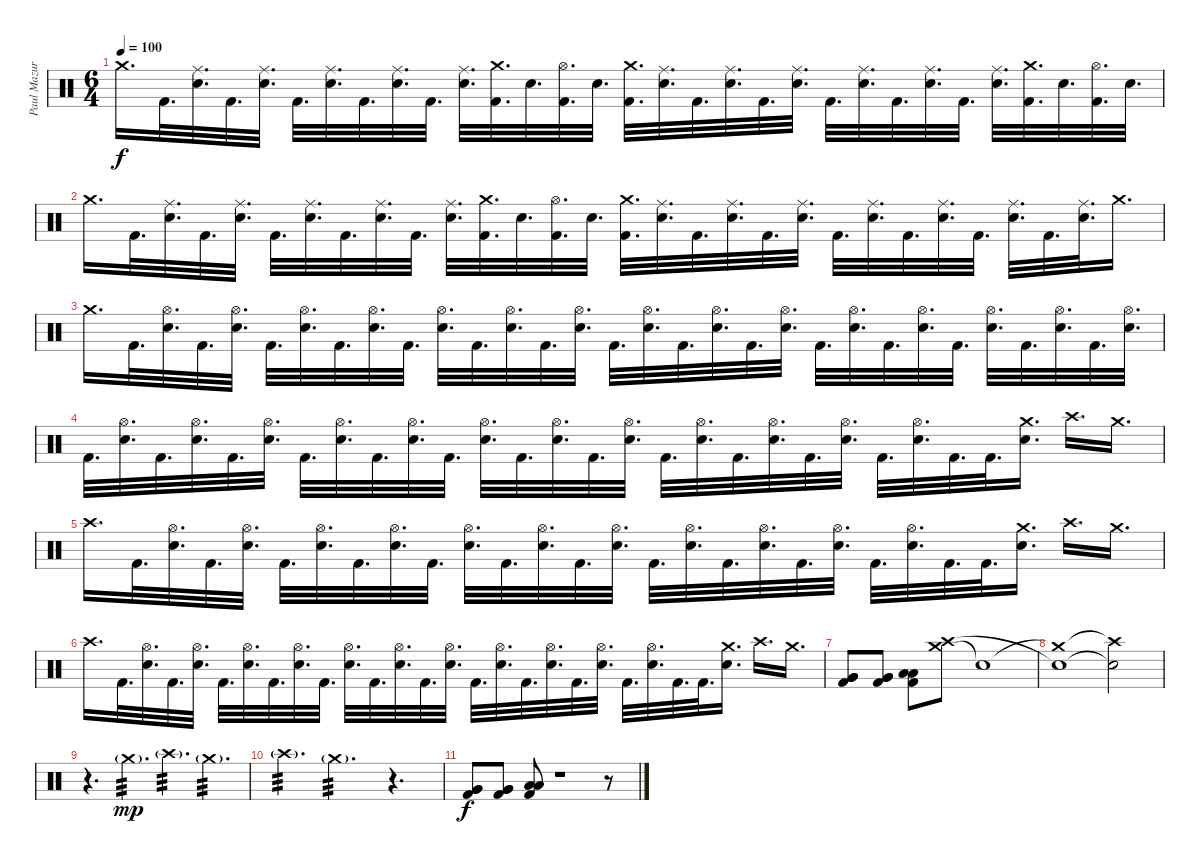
\track ("Paul Mazurkiewicz" "Paul Mazur") {instrument percussion}
\staff {score}
\articulation defaults
\ts (6 4)
\tempo 100
\clef neutral
\ks c "Crash medium (hit)".16{d dy f} "Kick (hit) 2".32{d}
("Ride (middle)" "Electric Snare (hit)").32{d} "Kick (hit) 2".32{d} ("Ride (middle)" "Electric Snare (hit)").32{d} "Kick (hit) 2".32{d} ("Ride (middle)" "Electric Snare (hit)").32{d} "Kick (hit) 2".32{d} ("Ride (middle)" "Electric Snare (hit)").32{d} "Kick (hit) 2".32{d} ("Ride (middle)" "Electric Snare (hit)").32{d} ("Crash medium (hit)" "Kick (hit) 2").32{d} "Electric Snare (hit)".32{d} ("Hi-Hat (open)" "Kick (hit) 2").32{d} "Electric Snare (hit)".32{d} ("Crash medium (hit)" "Kick (hit) 2").32{d} ("Ride (middle)" "Electric Snare (hit)").32{d} "Kick (hit) 2".32{d} ("Ride (middle)" "Electric Snare (hit)").32{d} "Kick (hit) 2".32{d} ("Ride (middle)" "Electric Snare (hit)").32{d} "Kick (hit) 2".32{d} ("Ride (middle)" "Electric Snare (hit)").32{d} "Kick (hit) 2".32{d} ("Ride (middle)" "Electric Snare (hit)").32{d} "Kick (hit) 2".32{d} ("Ride (middle)" "Electric Snare (hit)").32{d} ("Crash medium (hit)" "Kick (hit) 2").32{d} "Electric Snare (hit)".32{d} ("Hi-Hat (open)" "Kick (hit) 2").32{d} "Electric Snare (hit)".32{d} |
"Crash medium (hit)".16{d} "Kick (hit) 2".32{d} ("Ride (middle)" "Electric Snare (hit)").32{d} "Kick (hit) 2".32{d} ("Ride (middle)" "Electric Snare (hit)").32{d} "Kick (hit) 2".32{d} ("Ride (middle)" "Electric Snare (hit)").32{d} "Kick (hit) 2".32{d} ("Ride (middle)" "Electric Snare (hit)").32{d} "Kick (hit) 2".32{d} ("Ride (middle)" "Electric Snare (hit)").32{d} ("Crash medium (hit)" "Kick (hit) 2").32{d} "Electric Snare (hit)".32{d} ("Hi-Hat (open)" "Kick (hit) 2").32{d} "Electric Snare (hit)".32{d} ("Crash medium (hit)" "Kick (hit) 2").32{d} ("Ride (middle)" "Electric Snare (hit)").32{d} "Kick (hit) 2".32{d} ("Ride (middle)" "Electric Snare (hit)").32{d} "Kick (hit) 2".32{d} ("Ride (middle)" "Electric Snare (hit)").32{d} "Kick (hit) 2".32{d} ("Ride (middle)" "Electric Snare (hit)").32{d} "Kick (hit) 2".32{d} ("Ride (middle)" "Electric Snare (hit)").32{d} "Kick (hit) 2".32{d} ("Ride (middle)" "Electric Snare (hit)").32{d} "Kick (hit) 2".32{d} ("Ride (middle)" "Electric Snare (hit)").32{d} "Crash medium (hit)".16{d} |
"Crash medium (hit)".16{d} "Kick (hit) 2".32{d} ("Hi-Hat (open)" "Electric Snare (hit)").32{d} "Kick (hit) 2".32{d} ("Hi-Hat (open)" "Electric Snare (hit)").32{d} "Kick (hit) 2".32{d} ("Hi-Hat (open)" "Electric Snare (hit)").32{d} "Kick (hit) 2".32{d} ("Hi-Hat (open)" "Electric Snare (hit)").32{d} "Kick (hit) 2".32{d} ("Hi-Hat (open)" "Electric Snare (hit)").32{d} "Kick (hit) 2".32{d} ("Hi-Hat (open)" "Electric Snare (hit)").32{d} "Kick (hit) 2".32{d} ("Hi-Hat (open)" "Electric Snare (hit)").32{d} "Kick (hit) 2".32{d} ("Hi-Hat (open)" "Electric Snare (hit)").32{d} "Kick (hit) 2".32{d} ("Hi-Hat (open)" "Electric Snare (hit)").32{d} "Kick (hit) 2".32{d} ("Hi-Hat (open)" "Electric Snare (hit)").32{d} "Kick (hit) 2".32{d} ("Hi-Hat (open)" "Electric Snare (hit)").32{d} "Kick (hit) 2".32{d} ("Hi-Hat (open)" "Electric Snare (hit)").32{d} "Kick (hit) 2".32{d} ("Hi-Hat (open)" "Electric Snare (hit)").32{d} "Kick (hit) 2".32{d} ("Hi-Hat (open)" "Electric Snare (hit)").32{d} "Kick (hit) 2".32{d} ("Hi-Hat (open)" "Electric Snare (hit)").32{d} |
"Kick (hit) 2".32{d} ("Hi-Hat (open)" "Electric Snare (hit)").32{d} "Kick (hit) 2".32{d} ("Hi-Hat (open)" "Electric Snare (hit)").32{d} "Kick (hit) 2".32{d} ("Hi-Hat (open)" "Electric Snare (hit)").32{d} "Kick (hit) 2".32{d} ("Hi-Hat (open)" "Electric Snare (hit)").32{d} "Kick (hit) 2".32{d} ("Hi-Hat (open)" "Electric Snare (hit)").32{d} "Kick (hit) 2".32{d} ("Hi-Hat (open)" "Electric Snare (hit)").32{d} "Kick (hit) 2".32{d} ("Hi-Hat (open)" "Electric Snare (hit)").32{d} "Kick (hit) 2".32{d} ("Hi-Hat (open)" "Electric Snare (hit)").32{d} "Kick (hit) 2".32{d} ("Hi-Hat (open)" "Electric Snare (hit)").32{d} "Kick (hit) 2".32{d} ("Hi-Hat (open)" "Electric Snare (hit)").32{d} "Kick (hit) 2".32{d} ("Hi-Hat (open)" "Electric Snare (hit)").32{d} "Kick (hit) 2".32{d} ("Hi-Hat (open)" "Electric Snare (hit)").32{d} "Kick (hit) 2".32{d} "Kick (hit) 2".32{d} ("Crash medium (hit)" "Electric Snare (hit)").16{d} "Crash high (hit)".16{d} "Crash medium (hit)".16{d} |
"Crash high (hit)".16{d} "Kick (hit) 2".32{d} ("Hi-Hat (open)" "Electric Snare (hit)").32{d} "Kick (hit) 2".32{d} ("Hi-Hat (open)" "Electric Snare (hit)").32{d} "Kick (hit) 2".32{d} ("Hi-Hat (open)" "Electric Snare (hit)").32{d} "Kick (hit) 2".32{d} ("Hi-Hat (open)" "Electric Snare (hit)").32{d} "Kick (hit) 2".32{d} ("Hi-Hat (open)" "Electric Snare (hit)").32{d} "Kick (hit) 2".32{d} ("Hi-Hat (open)" "Electric Snare (hit)").32{d} "Kick (hit) 2".32{d} ("Hi-Hat (open)" "Electric Snare (hit)").32{d} "Kick (hit) 2".32{d} ("Hi-Hat (open)" "Electric Snare (hit)").32{d} "Kick (hit) 2".32{d} ("Hi-Hat (open)" "Electric Snare (hit)").32{d} "Kick (hit) 2".32{d} ("Hi-Hat (open)" "Electric Snare (hit)").32{d} "Kick (hit) 2".32{d} ("Hi-Hat (open)" "Electric Snare (hit)").32{d} "Kick (hit) 2".32{d} "Kick (hit) 2".32{d} ("Crash medium (hit)" "Electric Snare (hit)").16{d} "Crash high (hit)".16{d} "Crash medium (hit)".16{d} |
"Crash high (hit)".16{d} "Kick (hit) 2".32{d} ("Hi-Hat (open)" "Electric Snare (hit)").32{d} "Kick (hit) 2".32{d} ("Hi-Hat (open)" "Electric Snare (hit)").32{d} "Kick (hit) 2".32{d} ("Hi-Hat (open)" "Electric Snare (hit)").32{d} "Kick (hit) 2".32{d} ("Hi-Hat (open)" "Electric Snare (hit)").32{d} "Kick (hit) 2".32{d} ("Hi-Hat (open)" "Electric Snare (hit)").32{d} "Kick (hit) 2".32{d} ("Hi-Hat (open)" "Electric Snare (hit)").32{d} "Kick (hit) 2".32{d} ("Hi-Hat (open)" "Electric Snare (hit)").32{d} "Kick (hit) 2".32{d} ("Hi-Hat (open)" "Electric Snare (hit)").32{d} "Kick (hit) 2".32{d} ("Hi-Hat (open)" "Electric Snare (hit)").32{d} "Kick (hit) 2".32{d} ("Hi-Hat (open)" "Electric Snare (hit)").32{d} "Kick (hit) 2".32{d} ("Hi-Hat (open)" "Electric Snare (hit)").32{d} "Kick (hit) 2".32{d} "Kick (hit) 2".32{d} ("Crash medium (hit)" "Electric Snare (hit)").16{d} "Crash high (hit)".16{d} "Crash medium (hit)".16{d} |
("Very Low Tom (hit)" "Very Low Tom (hit)" "Kick (hit) 2").8 ("Very Low Tom (hit)" "Very Low Tom (hit)" "Kick (hit) 2").8 ("Low Floor Tom (hit)" "Low Floor Tom (hit)" "Kick (hit) 2").8 ("Crash medium (hit)" "Crash high (hit)").8 "Snare (hit)"{t}.1 |
("Crash medium (hit)"{t} "Snare (hit)"{t}).1 ("Crash high (hit)"{t} "Snare (hit)"{t}).2 |
r.4{d} "Crash medium (hit)"{g}.4{d tp 3 dy mp} "Crash high (hit)"{g}.4{d tp 3} "Crash medium (hit)"{g}.4{d tp 3} |
"Crash high (hit)"{g}.4{d tp 3} "Crash medium (hit)"{g}.2{d tp 3} r.4{d} |
("Very Low Tom (hit)" "Very Low Tom (hit)" "Kick (hit) 2").8{dy f} ("Very Low Tom (hit)" "Very Low Tom (hit)" "Kick (hit) 2").8 ("Low Floor Tom (hit)" "Low Floor Tom (hit)" "Kick (hit) 2").8 r.1 r.8
